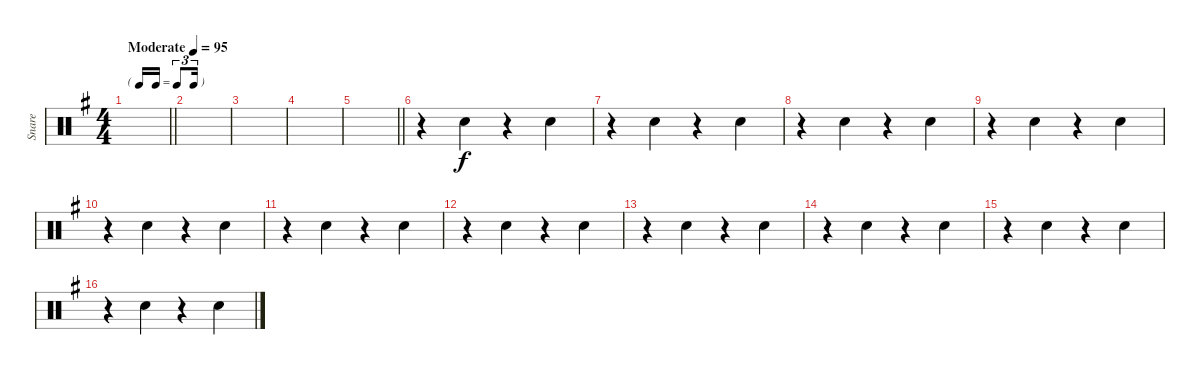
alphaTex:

\track ("Snare" "Snare") {instrument percussion}
\staff {score}
\articulation defaults
\ts (4 4)
\tf triplet16th
\tempo (95 "Moderate")
\clef neutral
\barLineRight lightlight
\ks eminor
|
|
|
|
\barLineRight lightlight
|
r.4 "Snare (hit) 2".4 r.4 "Snare (hit) 2".4 |
r.4 "Snare (hit) 2".4 r.4 "Snare (hit) 2".4 |
r.4 "Snare (hit) 2".4 r.4 "Snare (hit) 2".4 |
r.4 "Snare (hit) 2".4 r.4 "Snare (hit) 2".4 |
r.4 "Snare (hit) 2".4 r.4 "Snare (hit) 2".4 |
r.4 "Snare (hit) 2".4 r.4 "Snare (hit) 2".4 |
r.4 "Snare (hit) 2".4 r.4 "Snare (hit) 2".4 |
r.4 "Snare (hit) 2".4 r.4 "Snare (hit) 2".4 |
r.4 "Snare (hit) 2".4 r.4 "Snare (hit) 2".4 |
r.4 "Snare (hit) 2".4 r.4 "Snare (hit) 2".4 |
r.4 "Snare (hit) 2".4 r.4 "Snare (hit) 2".4
